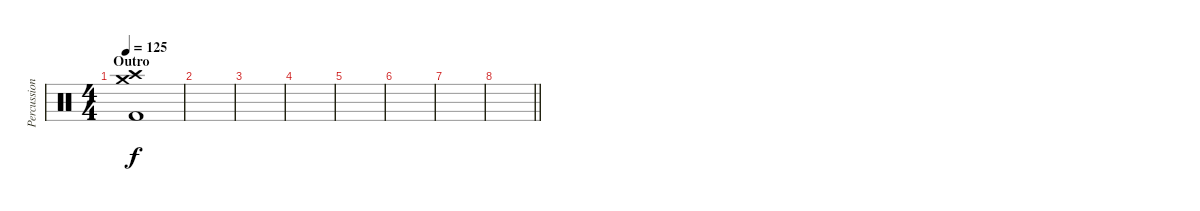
\track ("Percussion" "Percussion") {instrument percussion}
\staff {score}
\articulation defaults
\ts (4 4)
\section ("" "Outro")
\tempo 125
\clef neutral
\ks c
("Crash high (hit)" "Crash medium (hit)" "Kick (hit) 2").1{dy f} |
|
|
|
|
|
|
\barLineRight lightlight
